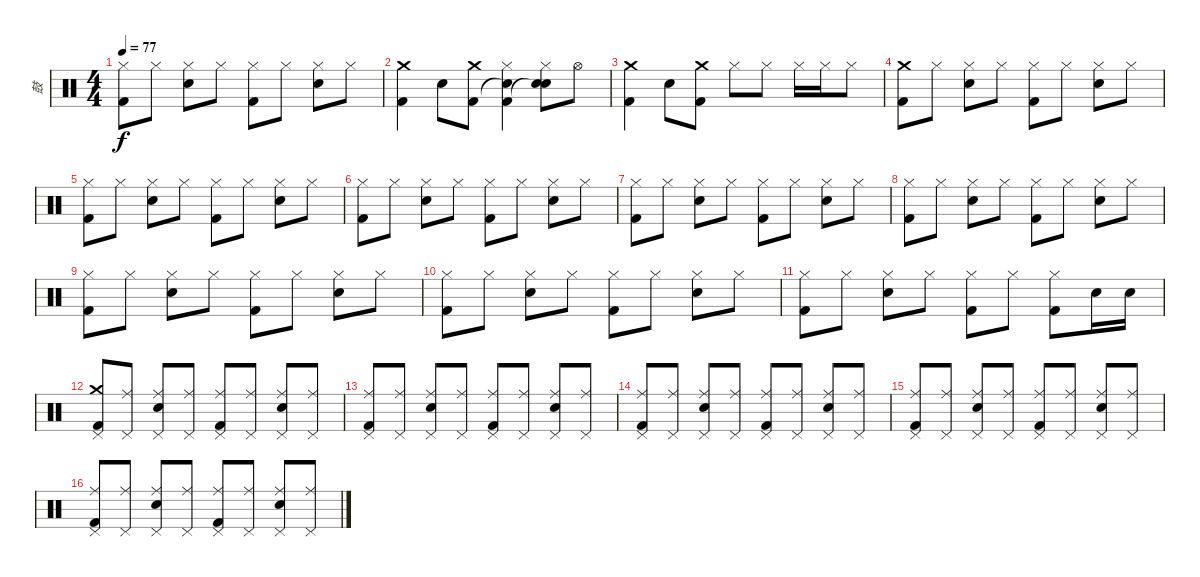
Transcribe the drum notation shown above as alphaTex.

\track ("鼓" "鼓") {instrument percussion}
\staff {score}
\articulation defaults
\ts (4 4)
\tempo 77
\clef neutral
\ks c
("Hi-Hat (closed)" "Kick (hit) 2").8{dy f} "Hi-Hat (closed)".8 ("Hi-Hat (closed)" "Snare (hit) 2").8 "Hi-Hat (closed)".8 ("Hi-Hat (closed)" "Kick (hit) 2").8 "Hi-Hat (closed)".8 ("Hi-Hat (closed)" "Snare (hit) 2").8 "Hi-Hat (closed)".8 |
("Crash medium (hit)" "Kick (hit) 2").4 "Snare (hit) 2".8 ("Crash medium (hit)" "Kick (hit) 2").8 ("Hi-Hat (closed)" "Snare (hit)"{t} "Kick (hit) 2").4 ("Hi-Hat (closed)" "Snare (hit) 2" "Snare (hit)"{t}).8 "Hi-Hat (open)".8 |
("Crash medium (hit)" "Kick (hit) 2").4 "Snare (hit) 2".8 ("Crash medium (hit)" "Kick (hit) 2").8 "Hi-Hat (closed)".8 "Hi-Hat (closed)".8 "Hi-Hat (closed)".16 "Hi-Hat (closed)".16 "Hi-Hat (closed)".8 |
("Crash medium (hit)" "Kick (hit) 2").8 "Hi-Hat (closed)".8 ("Hi-Hat (closed)" "Snare (hit) 2").8 "Hi-Hat (closed)".8 ("Hi-Hat (closed)" "Kick (hit) 2").8 "Hi-Hat (closed)".8 ("Hi-Hat (closed)" "Snare (hit) 2").8 "Hi-Hat (closed)".8 |
("Hi-Hat (closed)" "Kick (hit) 2").8 "Hi-Hat (closed)".8 ("Hi-Hat (closed)" "Snare (hit) 2").8 "Hi-Hat (closed)".8 ("Hi-Hat (closed)" "Kick (hit) 2").8 "Hi-Hat (closed)".8 ("Hi-Hat (closed)" "Snare (hit) 2").8 "Hi-Hat (closed)".8 |
("Hi-Hat (closed)" "Kick (hit) 2").8 "Hi-Hat (closed)".8 ("Hi-Hat (closed)" "Snare (hit) 2").8 "Hi-Hat (closed)".8 ("Hi-Hat (closed)" "Kick (hit) 2").8 "Hi-Hat (closed)".8 ("Hi-Hat (closed)" "Snare (hit) 2").8 "Hi-Hat (closed)".8 |
("Hi-Hat (closed)" "Kick (hit) 2").8 "Hi-Hat (closed)".8 ("Hi-Hat (closed)" "Snare (hit) 2").8 "Hi-Hat (closed)".8 ("Hi-Hat (closed)" "Kick (hit) 2").8 "Hi-Hat (closed)".8 ("Hi-Hat (closed)" "Snare (hit) 2").8 "Hi-Hat (closed)".8 |
("Hi-Hat (closed)" "Kick (hit) 2").8 "Hi-Hat (closed)".8 ("Hi-Hat (closed)" "Snare (hit) 2").8 "Hi-Hat (closed)".8 ("Hi-Hat (closed)" "Kick (hit) 2").8 "Hi-Hat (closed)".8 ("Hi-Hat (closed)" "Snare (hit) 2").8 "Hi-Hat (closed)".8 |
("Hi-Hat (closed)" "Kick (hit) 2").8 "Hi-Hat (closed)".8 ("Hi-Hat (closed)" "Snare (hit) 2").8 "Hi-Hat (closed)".8 ("Hi-Hat (closed)" "Kick (hit) 2").8 "Hi-Hat (closed)".8 ("Hi-Hat (closed)" "Snare (hit) 2").8 "Hi-Hat (closed)".8 |
("Hi-Hat (closed)" "Kick (hit) 2").8 "Hi-Hat (closed)".8 ("Hi-Hat (closed)" "Snare (hit) 2").8 "Hi-Hat (closed)".8 ("Hi-Hat (closed)" "Kick (hit) 2").8 "Hi-Hat (closed)".8 ("Hi-Hat (closed)" "Snare (hit) 2").8 "Hi-Hat (closed)".8 |
("Hi-Hat (closed)" "Kick (hit) 2").8 "Hi-Hat (closed)".8 ("Hi-Hat (closed)" "Snare (hit) 2").8 "Hi-Hat (closed)".8 ("Hi-Hat (closed)" "Kick (hit) 2").8 "Hi-Hat (closed)".8 ("Hi-Hat (closed)" "Kick (hit) 2").8 "Snare (hit) 2".16 "Snare (hit) 2".16 |
("Crash medium (hit)" "Pedal Hi-Hat (hit)" "Kick (hit) 2").8 ("Ride (middle)" "Pedal Hi-Hat (hit)").8 ("Ride (middle)" "Pedal Hi-Hat (hit)" "Snare (hit) 2").8 ("Ride (middle)" "Pedal Hi-Hat (hit)").8 ("Ride (middle)" "Pedal Hi-Hat (hit)" "Kick (hit) 2").8 ("Ride (middle)" "Pedal Hi-Hat (hit)").8 ("Ride (middle)" "Pedal Hi-Hat (hit)" "Snare (hit) 2").8 ("Ride (middle)" "Pedal Hi-Hat (hit)").8 |
("Ride (middle)" "Pedal Hi-Hat (hit)" "Kick (hit) 2").8 ("Ride (middle)" "Pedal Hi-Hat (hit)").8 ("Ride (middle)" "Pedal Hi-Hat (hit)" "Snare (hit) 2").8 ("Ride (middle)" "Pedal Hi-Hat (hit)").8 ("Ride (middle)" "Pedal Hi-Hat (hit)" "Kick (hit) 2").8 ("Ride (middle)" "Pedal Hi-Hat (hit)").8 ("Ride (middle)" "Pedal Hi-Hat (hit)" "Snare (hit) 2").8 ("Ride (middle)" "Pedal Hi-Hat (hit)").8 |
("Ride (middle)" "Pedal Hi-Hat (hit)" "Kick (hit) 2").8 ("Ride (middle)" "Pedal Hi-Hat (hit)").8 ("Ride (middle)" "Pedal Hi-Hat (hit)" "Snare (hit) 2").8 ("Ride (middle)" "Pedal Hi-Hat (hit)").8 ("Ride (middle)" "Pedal Hi-Hat (hit)" "Kick (hit) 2").8 ("Ride (middle)" "Pedal Hi-Hat (hit)").8 ("Ride (middle)" "Pedal Hi-Hat (hit)" "Snare (hit) 2").8 ("Ride (middle)" "Pedal Hi-Hat (hit)").8 |
("Ride (middle)" "Pedal Hi-Hat (hit)" "Kick (hit) 2").8 ("Ride (middle)" "Pedal Hi-Hat (hit)").8 ("Ride (middle)" "Pedal Hi-Hat (hit)" "Snare (hit) 2").8 ("Ride (middle)" "Pedal Hi-Hat (hit)").8 ("Ride (middle)" "Pedal Hi-Hat (hit)" "Kick (hit) 2").8 ("Ride (middle)" "Pedal Hi-Hat (hit)").8 ("Ride (middle)" "Pedal Hi-Hat (hit)" "Snare (hit) 2").8 ("Ride (middle)" "Pedal Hi-Hat (hit)").8 |
("Ride (middle)" "Pedal Hi-Hat (hit)" "Kick (hit) 2").8 ("Ride (middle)" "Pedal Hi-Hat (hit)").8 ("Ride (middle)" "Pedal Hi-Hat (hit)" "Snare (hit) 2").8 ("Ride (middle)" "Pedal Hi-Hat (hit)").8 ("Ride (middle)" "Pedal Hi-Hat (hit)" "Kick (hit) 2").8 ("Ride (middle)" "Pedal Hi-Hat (hit)").8 ("Ride (middle)" "Pedal Hi-Hat (hit)" "Snare (hit) 2").8 ("Ride (middle)" "Pedal Hi-Hat (hit)").8
